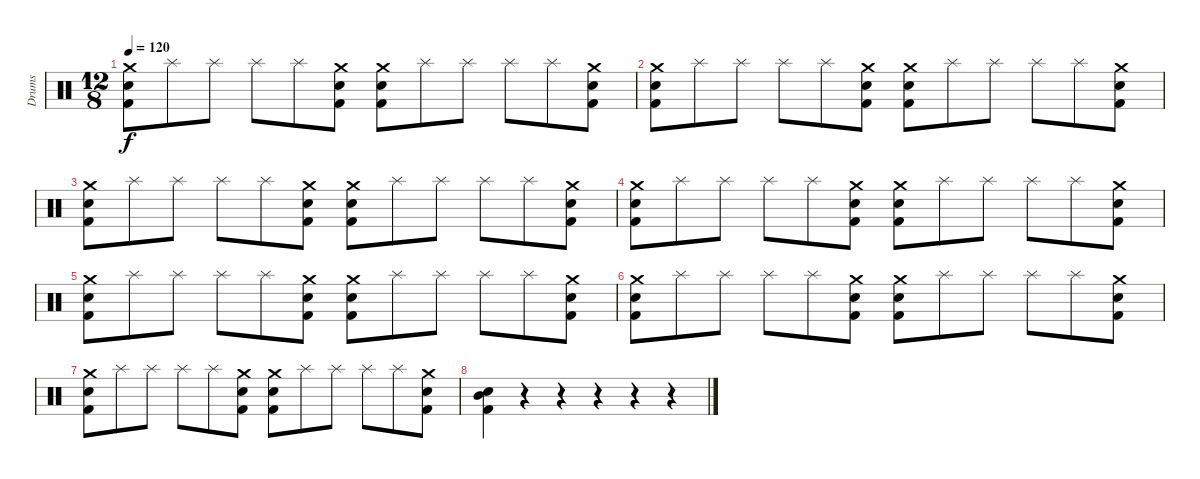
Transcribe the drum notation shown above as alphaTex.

\track ("Drums" "Drums") {instrument percussion}
\staff {score}
\articulation defaults
\ts (12 8)
\tempo 120
\clef neutral
\ks c
("Crash medium (hit)" "Snare (hit) 2" "Kick (hit) 2").8{dy f} "Splash (hit)".8 "Splash (hit)".8 "Splash (hit)".8 "Splash (hit)".8 ("Crash medium (hit)" "Snare (hit) 2" "Kick (hit) 2").8 ("Crash medium (hit)" "Snare (hit) 2" "Kick (hit) 2").8 "Splash (hit)".8 "Splash (hit)".8 "Splash (hit)".8 "Splash (hit)".8 ("Crash medium (hit)" "Snare (hit) 2" "Kick (hit) 2").8 |
("Crash medium (hit)" "Snare (hit) 2" "Kick (hit) 2").8 "Splash (hit)".8 "Splash (hit)".8 "Splash (hit)".8 "Splash (hit)".8 ("Crash medium (hit)" "Snare (hit) 2" "Kick (hit) 2").8 ("Crash medium (hit)" "Snare (hit) 2" "Kick (hit) 2").8 "Splash (hit)".8 "Splash (hit)".8 "Splash (hit)".8 "Splash (hit)".8 ("Crash medium (hit)" "Snare (hit) 2" "Kick (hit) 2").8 |
("Crash medium (hit)" "Snare (hit) 2" "Kick (hit) 2").8 "Splash (hit)".8 "Splash (hit)".8 "Splash (hit)".8 "Splash (hit)".8 ("Crash medium (hit)" "Snare (hit) 2" "Kick (hit) 2").8 ("Crash medium (hit)" "Snare (hit) 2" "Kick (hit) 2").8 "Splash (hit)".8 "Splash (hit)".8 "Splash (hit)".8 "Splash (hit)".8 ("Crash medium (hit)" "Snare (hit) 2" "Kick (hit) 2").8 |
("Crash medium (hit)" "Snare (hit) 2" "Kick (hit) 2").8 "Splash (hit)".8 "Splash (hit)".8 "Splash (hit)".8 "Splash (hit)".8 ("Crash medium (hit)" "Snare (hit) 2" "Kick (hit) 2").8 ("Crash medium (hit)" "Snare (hit) 2" "Kick (hit) 2").8 "Splash (hit)".8 "Splash (hit)".8 "Splash (hit)".8 "Splash (hit)".8 ("Crash medium (hit)" "Snare (hit) 2" "Kick (hit) 2").8 |
("Crash medium (hit)" "Snare (hit) 2" "Kick (hit) 2").8 "Splash (hit)".8 "Splash (hit)".8 "Splash (hit)".8 "Splash (hit)".8 ("Crash medium (hit)" "Snare (hit) 2" "Kick (hit) 2").8 ("Crash medium (hit)" "Snare (hit) 2" "Kick (hit) 2").8 "Splash (hit)".8 "Splash (hit)".8 "Splash (hit)".8 "Splash (hit)".8 ("Crash medium (hit)" "Snare (hit) 2" "Kick (hit) 2").8 |
("Crash medium (hit)" "Snare (hit) 2" "Kick (hit) 2").8 "Splash (hit)".8 "Splash (hit)".8 "Splash (hit)".8 "Splash (hit)".8 ("Crash medium (hit)" "Snare (hit) 2" "Kick (hit) 2").8 ("Crash medium (hit)" "Snare (hit) 2" "Kick (hit) 2").8 "Splash (hit)".8 "Splash (hit)".8 "Splash (hit)".8 "Splash (hit)".8 ("Crash medium (hit)" "Snare (hit) 2" "Kick (hit) 2").8 |
("Crash medium (hit)" "Snare (hit) 2" "Kick (hit) 2").8 "Splash (hit)".8 "Splash (hit)".8 "Splash (hit)".8 "Splash (hit)".8 ("Crash medium (hit)" "Snare (hit) 2" "Kick (hit) 2").8 ("Crash medium (hit)" "Snare (hit) 2" "Kick (hit) 2").8 "Splash (hit)".8 "Splash (hit)".8 "Splash (hit)".8 "Splash (hit)".8 ("Crash medium (hit)" "Snare (hit) 2" "Kick (hit) 2").8 |
("Mid Tom (hit)" "Snare (hit) 2" "Kick (hit) 2").4 r.4 r.4 r.4 r.4 r.4
